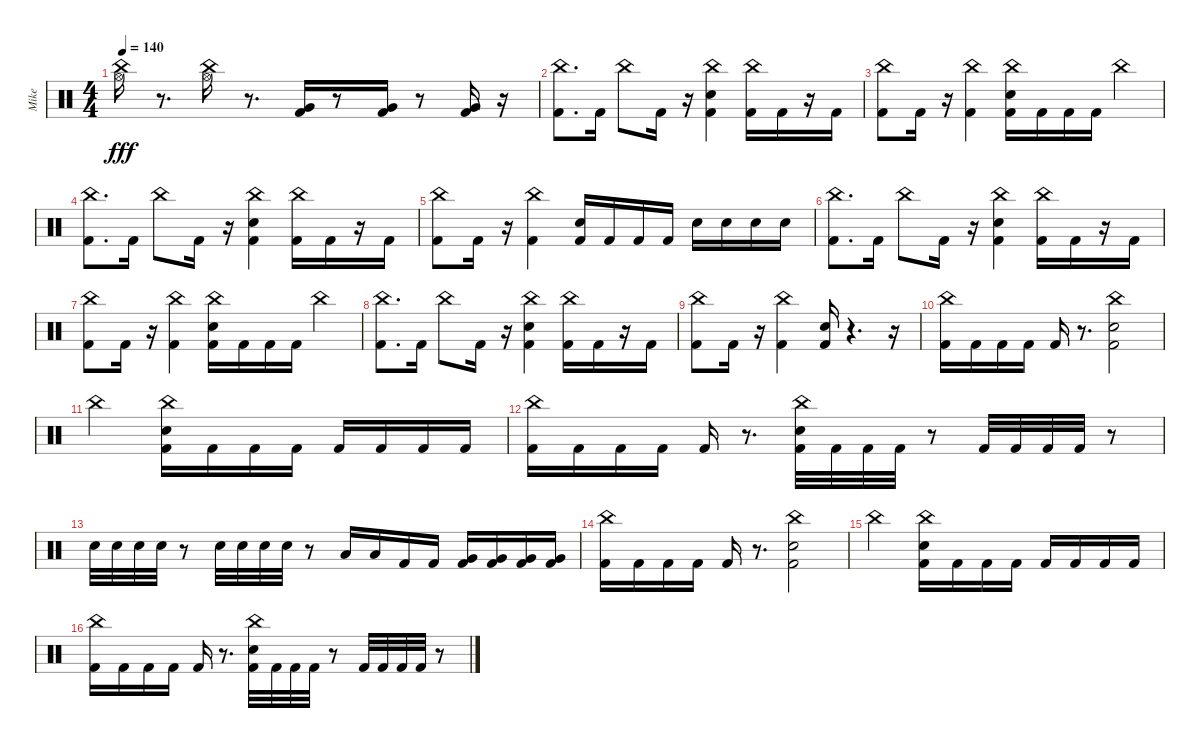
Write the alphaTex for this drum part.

\track ("Mike" "Mike") {instrument percussion}
\staff {score}
\articulation defaults
\ts (4 4)
\tempo 140
\clef neutral
\ks c
("Hi-Hat (open)" "China (hit)").16{dy fff} r.8{d} ("Hi-Hat (open)" "China (hit)").16 r.8{d} ("Kick (hit) 2" "Very Low Tom (hit)").16 r.8 ("Kick (hit) 2" "Very Low Tom (hit)").16 r.8 ("Kick (hit) 2" "Very Low Tom (hit)").16 r.16 |
("Kick (hit) 2" "China (hit)").8{d} "Kick (hit) 2".16 "China (hit)".8 "Kick (hit) 2".16 r.16 ("Kick (hit) 2" "Electric Snare (hit)" "China (hit)").4 ("Kick (hit) 2" "China (hit)").16 "Kick (hit) 2".16 r.16 "Kick (hit) 2".16 |
("Kick (hit) 2" "China (hit)").8 "Kick (hit) 2".16 r.16 ("Kick (hit) 2" "China (hit)").4 ("Kick (hit) 2" "Electric Snare (hit)" "China (hit)").16 "Kick (hit) 2".16 "Kick (hit) 2".16 "Kick (hit) 2".16 "China (hit)".4 |
("Kick (hit) 2" "China (hit)").8{d} "Kick (hit) 2".16 "China (hit)".8 "Kick (hit) 2".16 r.16 ("Kick (hit) 2" "Electric Snare (hit)" "China (hit)").4 ("Kick (hit) 2" "China (hit)").16 "Kick (hit) 2".16 r.16 "Kick (hit) 2".16 |
("Kick (hit) 2" "China (hit)").8 "Kick (hit) 2".16 r.16 ("Kick (hit) 2" "China (hit)").4 ("Kick (hit) 2" "Electric Snare (hit)").16 "Kick (hit) 2".16 "Kick (hit) 2".16 "Kick (hit) 2".16 "Electric Snare (hit)".16 "Electric Snare (hit)".16 "Electric Snare (hit)".16 "Electric Snare (hit)".16 |
("Kick (hit) 2" "China (hit)").8{d} "Kick (hit) 2".16 "China (hit)".8 "Kick (hit) 2".16 r.16 ("Kick (hit) 2" "Electric Snare (hit)" "China (hit)").4 ("Kick (hit) 2" "China (hit)").16 "Kick (hit) 2".16 r.16 "Kick (hit) 2".16 |
("Kick (hit) 2" "China (hit)").8 "Kick (hit) 2".16 r.16 ("Kick (hit) 2" "China (hit)").4 ("Kick (hit) 2" "Electric Snare (hit)" "China (hit)").16 "Kick (hit) 2".16 "Kick (hit) 2".16 "Kick (hit) 2".16 "China (hit)".4 |
("Kick (hit) 2" "China (hit)").8{d} "Kick (hit) 2".16 "China (hit)".8 "Kick (hit) 2".16 r.16 ("Kick (hit) 2" "Electric Snare (hit)" "China (hit)").4 ("Kick (hit) 2" "China (hit)").16 "Kick (hit) 2".16 r.16 "Kick (hit) 2".16 |
("Kick (hit) 2" "China (hit)").8 "Kick (hit) 2".16 r.16 ("Kick (hit) 2" "China (hit)").4 ("Kick (hit) 2" "Electric Snare (hit)").16 r.4{d} r.16 |
("Kick (hit) 2" "China (hit)").16 "Kick (hit) 2".16 "Kick (hit) 2".16 "Kick (hit) 2".16 "Kick (hit) 2".16 r.8{d} ("Kick (hit) 2" "Electric Snare (hit)" "China (hit)").2 |
"China (hit)".2 ("Kick (hit) 2" "Electric Snare (hit)" "China (hit)").16 "Kick (hit) 2".16 "Kick (hit) 2".16 "Kick (hit) 2".16 "Kick (hit) 2".16 "Kick (hit) 2".16 "Kick (hit) 2".16 "Kick (hit) 2".16 |
("Kick (hit) 2" "China (hit)").16 "Kick (hit) 2".16 "Kick (hit) 2".16 "Kick (hit) 2".16 "Kick (hit) 2".16 r.8{d} ("Kick (hit) 2" "Electric Snare (hit)" "China (hit)").32 "Kick (hit) 2".32 "Kick (hit) 2".32 "Kick (hit) 2".32 r.8 "Kick (hit) 2".32 "Kick (hit) 2".32 "Kick (hit) 2".32 "Kick (hit) 2".32 r.8 |
"Electric Snare (hit)".32 "Electric Snare (hit)".32 "Electric Snare (hit)".32 "Electric Snare (hit)".32 r.8 "Electric Snare (hit)".32 "Electric Snare (hit)".32 "Electric Snare (hit)".32 "Electric Snare (hit)".32 r.8 "Low Tom (hit)".16 "Low Tom (hit)".16 "Kick (hit) 2".16 "Kick (hit) 2".16 ("Kick (hit) 2" "Very Low Tom (hit)").16 ("Kick (hit) 2" "Very Low Tom (hit)").16 ("Kick (hit) 2" "Very Low Tom (hit)").16 ("Kick (hit) 2" "Very Low Tom (hit)").16 |
("Kick (hit) 2" "China (hit)").16 "Kick (hit) 2".16 "Kick (hit) 2".16 "Kick (hit) 2".16 "Kick (hit) 2".16 r.8{d} ("Kick (hit) 2" "Electric Snare (hit)" "China (hit)").2 |
"China (hit)".2 ("Kick (hit) 2" "Electric Snare (hit)" "China (hit)").16 "Kick (hit) 2".16 "Kick (hit) 2".16 "Kick (hit) 2".16 "Kick (hit) 2".16 "Kick (hit) 2".16 "Kick (hit) 2".16 "Kick (hit) 2".16 |
("Kick (hit) 2" "China (hit)").16 "Kick (hit) 2".16 "Kick (hit) 2".16 "Kick (hit) 2".16 "Kick (hit) 2".16 r.8{d} ("Kick (hit) 2" "Electric Snare (hit)" "China (hit)").32 "Kick (hit) 2".32 "Kick (hit) 2".32 "Kick (hit) 2".32 r.8 "Kick (hit) 2".32 "Kick (hit) 2".32 "Kick (hit) 2".32 "Kick (hit) 2".32 r.8
